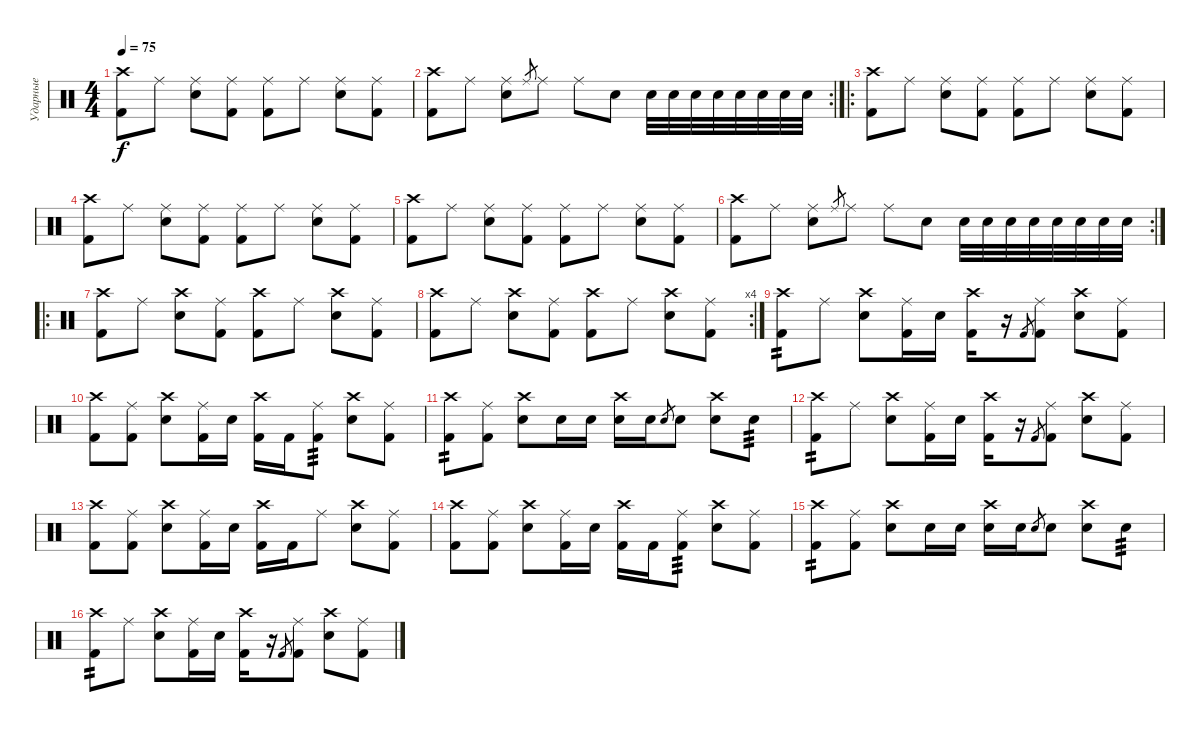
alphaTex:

\track ("Ударные" "Ударные") {instrument percussion}
\staff {score}
\articulation defaults
\ts (4 4)
\tempo 75
\clef neutral
\ks c
("Crash high (hit)" "Kick (hit) 2").8{dy f} "Ride (middle)".8 ("Ride (middle)" "Electric Snare (hit)").8 ("Ride (middle)" "Kick (hit) 2").8 ("Ride (middle)" "Kick (hit) 2").8 "Ride (middle)".8 ("Ride (middle)" "Electric Snare (hit)").8 ("Ride (middle)" "Kick (hit) 2").8 |
\rc 2
("Crash high (hit)" "Kick (hit) 2").8 "Ride (middle)".8 ("Ride (middle)" "Electric Snare (hit)").8 "Ride (middle)".8{gr} "Ride (middle)".8 "Ride (middle)".8 "Electric Snare (hit)".8 "Electric Snare (hit)".32 "Electric Snare (hit)".32 "Electric Snare (hit)".32 "Electric Snare (hit)".32 "Electric Snare (hit)".32 "Electric Snare (hit)".32 "Electric Snare (hit)".32 "Electric Snare (hit)".32 |
\ro
("Crash high (hit)" "Kick (hit) 2").8 "Ride (middle)".8 ("Ride (middle)" "Electric Snare (hit)").8 ("Ride (middle)" "Kick (hit) 2").8 ("Ride (middle)" "Kick (hit) 2").8 "Ride (middle)".8 ("Ride (middle)" "Electric Snare (hit)").8 ("Ride (middle)" "Kick (hit) 2").8 |
("Crash high (hit)" "Kick (hit) 2").8 "Ride (middle)".8 ("Ride (middle)" "Electric Snare (hit)").8 ("Ride (middle)" "Kick (hit) 2").8 ("Ride (middle)" "Kick (hit) 2").8 "Ride (middle)".8 ("Ride (middle)" "Electric Snare (hit)").8 ("Ride (middle)" "Kick (hit) 2").8 |
("Crash high (hit)" "Kick (hit) 2").8 "Ride (middle)".8 ("Ride (middle)" "Electric Snare (hit)").8 ("Ride (middle)" "Kick (hit) 2").8 ("Ride (middle)" "Kick (hit) 2").8 "Ride (middle)".8 ("Ride (middle)" "Electric Snare (hit)").8 ("Ride (middle)" "Kick (hit) 2").8 |
\rc 2
("Crash high (hit)" "Kick (hit) 2").8 "Ride (middle)".8 ("Ride (middle)" "Electric Snare (hit)").8 "Ride (middle)".8{gr} "Ride (middle)".8 "Ride (middle)".8 "Electric Snare (hit)".8 "Electric Snare (hit)".32 "Electric Snare (hit)".32 "Electric Snare (hit)".32 "Electric Snare (hit)".32 "Electric Snare (hit)".32 "Electric Snare (hit)".32 "Electric Snare (hit)".32 "Electric Snare (hit)".32 |
\ro
("Crash high (hit)" "Kick (hit) 2").8 "Ride (middle)".8 ("Crash high (hit)" "Electric Snare (hit)").8 ("Ride (middle)" "Kick (hit) 2").8 ("Crash high (hit)" "Kick (hit) 2").8 "Ride (middle)".8 ("Crash high (hit)" "Electric Snare (hit)").8 ("Ride (middle)" "Kick (hit) 2").8 |
\rc 4
("Crash high (hit)" "Kick (hit) 2").8 "Ride (middle)".8 ("Crash high (hit)" "Electric Snare (hit)").8 ("Ride (middle)" "Kick (hit) 2").8 ("Crash high (hit)" "Kick (hit) 2").8 "Ride (middle)".8 ("Crash high (hit)" "Electric Snare (hit)").8 ("Ride (middle)" "Kick (hit) 2").8 |
("Crash high (hit)" "Kick (hit) 2").8{tp 2} "Ride (middle)".8 ("Crash high (hit)" "Snare (hit) 2").8 ("Ride (middle)" "Kick (hit) 2").16 "Snare (hit) 2".16 ("Crash high (hit)" "Kick (hit) 2").16 r.16 "Kick (hit) 2".8{gr} ("Ride (middle)" "Kick (hit) 2").8 ("Crash high (hit)" "Snare (hit) 2").8 ("Ride (middle)" "Kick (hit) 2").8 |
("Crash high (hit)" "Kick (hit) 2").8 ("Ride (middle)" "Kick (hit) 2").8 ("Crash high (hit)" "Snare (hit) 2").8 ("Ride (middle)" "Kick (hit) 2").16 "Snare (hit) 2".16 ("Crash high (hit)" "Kick (hit) 2").16 "Kick (hit) 2".16 ("Ride (middle)" "Kick (hit) 2").8{tp 3} ("Crash high (hit)" "Snare (hit) 2").8 ("Ride (middle)" "Kick (hit) 2").8 |
("Crash high (hit)" "Kick (hit) 2").8{tp 2} ("Ride (middle)" "Kick (hit) 2").8 ("Crash high (hit)" "Snare (hit) 2").8 "Snare (hit) 2".16 "Snare (hit) 2".16 ("Crash high (hit)" "Snare (hit) 2").16 "Snare (hit) 2".16 "Snare (hit) 2".8{gr} "Snare (hit) 2".8 ("Crash high (hit)" "Snare (hit) 2").8 "Snare (hit) 2".8{tp 3} |
("Crash high (hit)" "Kick (hit) 2").8{tp 2} "Ride (middle)".8 ("Crash high (hit)" "Snare (hit) 2").8 ("Ride (middle)" "Kick (hit) 2").16 "Snare (hit) 2".16 ("Crash high (hit)" "Kick (hit) 2").16 r.16 "Kick (hit) 2".8{gr} ("Ride (middle)" "Kick (hit) 2").8 ("Crash high (hit)" "Snare (hit) 2").8 ("Ride (middle)" "Kick (hit) 2").8 |
("Crash high (hit)" "Kick (hit) 2").8 ("Ride (middle)" "Kick (hit) 2").8 ("Crash high (hit)" "Snare (hit) 2").8 ("Ride (middle)" "Kick (hit) 2").16 "Snare (hit) 2".16 ("Crash high (hit)" "Kick (hit) 2").16 "Kick (hit) 2".16 "Ride (middle)".8 ("Crash high (hit)" "Snare (hit) 2").8 ("Ride (middle)" "Kick (hit) 2").8 |
("Crash high (hit)" "Kick (hit) 2").8 ("Ride (middle)" "Kick (hit) 2").8 ("Crash high (hit)" "Snare (hit) 2").8 ("Ride (middle)" "Kick (hit) 2").16 "Snare (hit) 2".16 ("Crash high (hit)" "Kick (hit) 2").16 "Kick (hit) 2".16 ("Ride (middle)" "Kick (hit) 2").8{tp 3} ("Crash high (hit)" "Snare (hit) 2").8 ("Ride (middle)" "Kick (hit) 2").8 |
("Crash high (hit)" "Kick (hit) 2").8{tp 2} ("Ride (middle)" "Kick (hit) 2").8 ("Crash high (hit)" "Snare (hit) 2").8 "Snare (hit) 2".16 "Snare (hit) 2".16 ("Crash high (hit)" "Snare (hit) 2").16 "Snare (hit) 2".16 "Snare (hit) 2".8{gr} "Snare (hit) 2".8 ("Crash high (hit)" "Snare (hit) 2").8 "Snare (hit) 2".8{tp 3} |
("Crash high (hit)" "Kick (hit) 2").8{tp 2} "Ride (middle)".8 ("Crash high (hit)" "Snare (hit) 2").8 ("Ride (middle)" "Kick (hit) 2").16 "Snare (hit) 2".16 ("Crash high (hit)" "Kick (hit) 2").16 r.16 "Kick (hit) 2".8{gr} ("Ride (middle)" "Kick (hit) 2").8 ("Crash high (hit)" "Snare (hit) 2").8 ("Ride (middle)" "Kick (hit) 2").8
